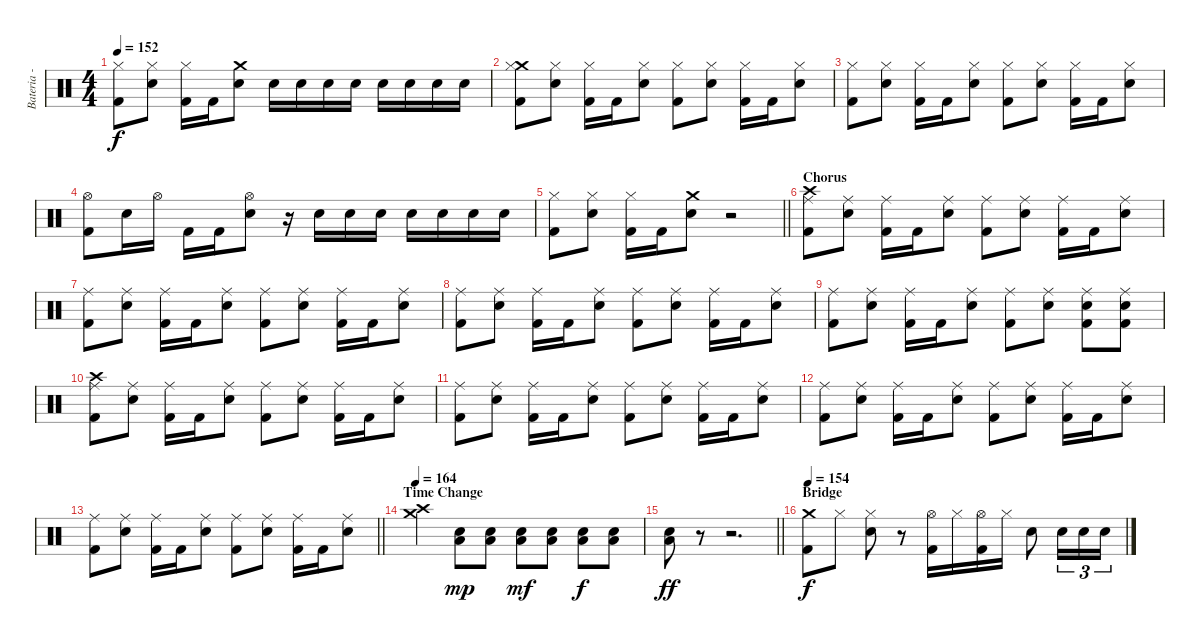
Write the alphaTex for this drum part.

\track ("Bateria - Larzon " "Bateria - ") {instrument percussion}
\staff {score}
\articulation defaults
\ts (4 4)
\tempo 152
\clef neutral
\ks c
("Kick (hit) 2" "Hi-Hat (closed)").8{dy f} ("Snare (hit) 2" "Hi-Hat (closed)").8 ("Kick (hit) 2" "Hi-Hat (closed)").16 "Kick (hit) 2".16 ("Snare (hit) 2" "Crash medium (hit)").8 "Snare (hit) 2".16 "Snare (hit) 2".16 "Snare (hit) 2".16 "Snare (hit) 2".16 "Snare (hit) 2".16 "Snare (hit) 2".16 "Snare (hit) 2".16 "Snare (hit) 2".16 |
("Kick (hit) 2" "Crash medium (hit)" "Hi-Hat (closed)").8 ("Snare (hit) 2" "Hi-Hat (closed)").8 ("Kick (hit) 2" "Hi-Hat (closed)").16 "Kick (hit) 2".16 ("Snare (hit) 2" "Hi-Hat (closed)").8 ("Kick (hit) 2" "Hi-Hat (closed)").8 ("Snare (hit) 2" "Hi-Hat (closed)").8 ("Kick (hit) 2" "Hi-Hat (closed)").16 "Kick (hit) 2".16 ("Snare (hit) 2" "Hi-Hat (closed)").8 |
("Kick (hit) 2" "Hi-Hat (closed)").8 ("Snare (hit) 2" "Hi-Hat (closed)").8 ("Kick (hit) 2" "Hi-Hat (closed)").16 "Kick (hit) 2".16 ("Snare (hit) 2" "Hi-Hat (closed)").8 ("Kick (hit) 2" "Hi-Hat (closed)").8 ("Snare (hit) 2" "Hi-Hat (closed)").8 ("Kick (hit) 2" "Hi-Hat (closed)").16 "Kick (hit) 2".16 ("Snare (hit) 2" "Hi-Hat (closed)").8 |
("Kick (hit) 2" "Hi-Hat (open)").8 "Snare (hit) 2".16 "Hi-Hat (open)".16 "Kick (hit) 2".16 "Kick (hit) 2".16 ("Snare (hit) 2" "Hi-Hat (open)").8 r.16 "Snare (hit) 2".16 "Snare (hit) 2".16 "Snare (hit) 2".16 "Snare (hit) 2".16 "Snare (hit) 2".16 "Snare (hit) 2".16 "Snare (hit) 2".16 |
\barLineRight lightlight
("Kick (hit) 2" "Hi-Hat (closed)").8 ("Snare (hit) 2" "Hi-Hat (closed)").8 ("Kick (hit) 2" "Hi-Hat (closed)").16 "Kick (hit) 2".16 ("Snare (hit) 2" "Crash medium (hit)").8 r.2 |
\section ("" "Chorus")
("Kick (hit) 2" "Crash high (hit)" "Ride (middle)").8 ("Snare (hit) 2" "Ride (middle)").8 ("Kick (hit) 2" "Ride (middle)").16 "Kick (hit) 2".16 ("Snare (hit) 2" "Ride (middle)").8 ("Kick (hit) 2" "Ride (middle)").8 ("Snare (hit) 2" "Ride (middle)").8 ("Kick (hit) 2" "Ride (middle)").16 "Kick (hit) 2".16 ("Snare (hit) 2" "Ride (middle)").8 |
("Kick (hit) 2" "Ride (middle)").8 ("Snare (hit) 2" "Ride (middle)").8 ("Kick (hit) 2" "Ride (middle)").16 "Kick (hit) 2".16 ("Snare (hit) 2" "Ride (middle)").8 ("Kick (hit) 2" "Ride (middle)").8 ("Snare (hit) 2" "Ride (middle)").8 ("Kick (hit) 2" "Ride (middle)").16 "Kick (hit) 2".16 ("Snare (hit) 2" "Ride (middle)").8 |
("Kick (hit) 2" "Ride (middle)").8 ("Snare (hit) 2" "Ride (middle)").8 ("Kick (hit) 2" "Ride (middle)").16 "Kick (hit) 2".16 ("Snare (hit) 2" "Ride (middle)").8 ("Kick (hit) 2" "Ride (middle)").8 ("Snare (hit) 2" "Ride (middle)").8 ("Kick (hit) 2" "Ride (middle)").16 "Kick (hit) 2".16 ("Snare (hit) 2" "Ride (middle)").8 |
("Kick (hit) 2" "Ride (middle)").8 ("Snare (hit) 2" "Ride (middle)").8 ("Kick (hit) 2" "Ride (middle)").16 "Kick (hit) 2".16 ("Snare (hit) 2" "Ride (middle)").8 ("Kick (hit) 2" "Ride (middle)").8 ("Snare (hit) 2" "Ride (middle)").8 ("Kick (hit) 2" "Ride (middle)" "Snare (hit) 2").8 ("Kick (hit) 2" "Ride (middle)" "Snare (hit) 2").8 |
("Kick (hit) 2" "Crash high (hit)" "Ride (middle)").8 ("Snare (hit) 2" "Ride (middle)").8 ("Kick (hit) 2" "Ride (middle)").16 "Kick (hit) 2".16 ("Snare (hit) 2" "Ride (middle)").8 ("Kick (hit) 2" "Ride (middle)").8 ("Snare (hit) 2" "Ride (middle)").8 ("Kick (hit) 2" "Ride (middle)").16 "Kick (hit) 2".16 ("Snare (hit) 2" "Ride (middle)").8 |
("Kick (hit) 2" "Ride (middle)").8 ("Snare (hit) 2" "Ride (middle)").8 ("Kick (hit) 2" "Ride (middle)").16 "Kick (hit) 2".16 ("Snare (hit) 2" "Ride (middle)").8 ("Kick (hit) 2" "Ride (middle)").8 ("Snare (hit) 2" "Ride (middle)").8 ("Kick (hit) 2" "Ride (middle)").16 "Kick (hit) 2".16 ("Snare (hit) 2" "Ride (middle)").8 |
("Kick (hit) 2" "Ride (middle)").8 ("Snare (hit) 2" "Ride (middle)").8 ("Kick (hit) 2" "Ride (middle)").16 "Kick (hit) 2".16 ("Snare (hit) 2" "Ride (middle)").8 ("Kick (hit) 2" "Ride (middle)").8 ("Snare (hit) 2" "Ride (middle)").8 ("Kick (hit) 2" "Ride (middle)").16 "Kick (hit) 2".16 ("Snare (hit) 2" "Ride (middle)").8 |
\barLineRight lightlight
("Kick (hit) 2" "Ride (middle)").8 ("Snare (hit) 2" "Ride (middle)").8 ("Kick (hit) 2" "Ride (middle)").16 "Kick (hit) 2".16 ("Snare (hit) 2" "Ride (middle)").8 ("Kick (hit) 2" "Ride (middle)").8 ("Snare (hit) 2" "Ride (middle)").8 ("Kick (hit) 2" "Ride (middle)").16 "Kick (hit) 2".16 ("Snare (hit) 2" "Ride (middle)").8 |
\section ("" "Time Change")
\tempo 164
("Crash high (hit)" "Crash medium (hit)").4 ("Low Floor Tom (hit)" "Snare (hit) 2").8{dy mp} ("Low Floor Tom (hit)" "Snare (hit) 2").8 ("Low Floor Tom (hit)" "Snare (hit) 2").8{dy mf} ("Low Floor Tom (hit)" "Snare (hit) 2").8 ("Low Floor Tom (hit)" "Snare (hit) 2").8{dy f} ("Low Floor Tom (hit)" "Snare (hit) 2").8 |
\barLineRight lightlight
("Low Floor Tom (hit)" "Snare (hit) 2").8{dy ff} r.8 r.2{d} |
\section ("" "Bridge")
\tempo 154
("Kick (hit) 2" "Crash medium (hit)").8{dy f} "Hi-Hat (closed)".8 ("Snare (hit) 2" "Hi-Hat (closed)").8 r.8 ("Kick (hit) 2" "Hi-Hat (open)").16 "Hi-Hat (closed)".16 ("Kick (hit) 2" "Hi-Hat (open)").16 "Hi-Hat (closed)".16 "Snare (hit) 2".8 "Snare (hit) 2".16{tu (3 2)} "Snare (hit) 2".16{tu (3 2)} "Snare (hit) 2".16{tu (3 2)}
